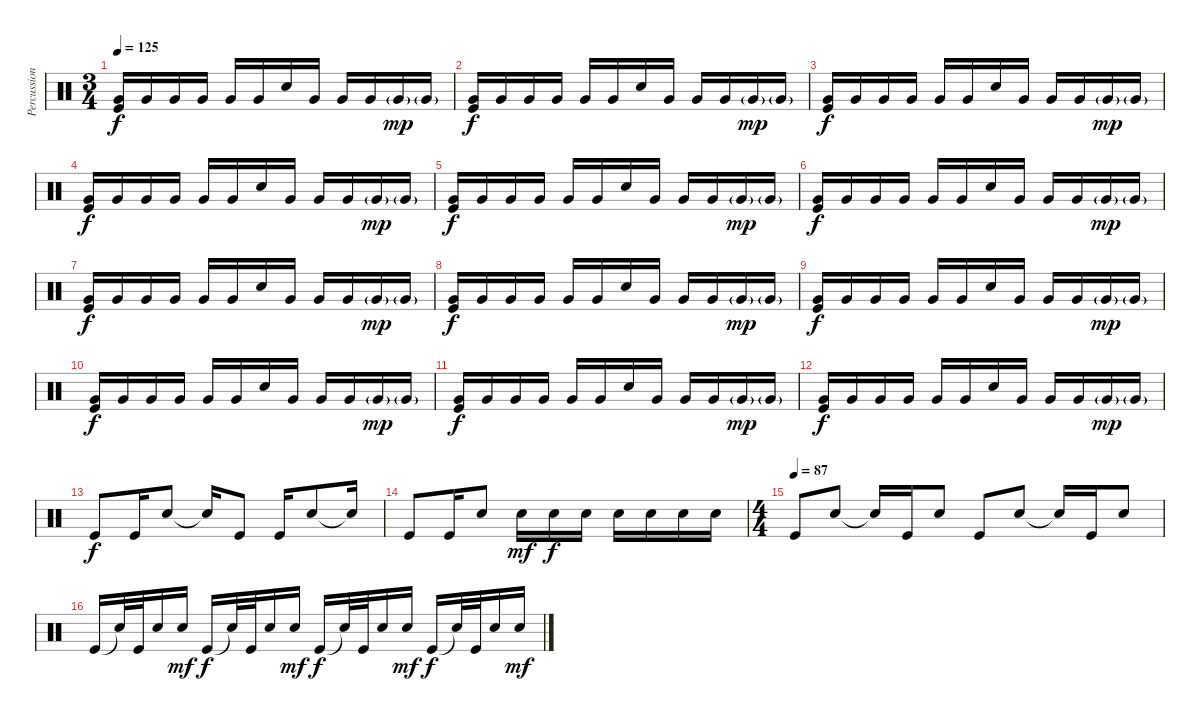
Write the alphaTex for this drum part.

\track ("Percussion" "Percussion") {instrument percussion}
\staff {score}
\articulation defaults
\ts (3 4)
\tempo 125
\clef neutral
\ks c
("Very Low Tom (hit)" "Kick (hit)").16{dy f} "Very Low Tom (hit)".16 "Very Low Tom (hit)".16 "Very Low Tom (hit)".16 "Very Low Tom (hit)".16 "Very Low Tom (hit)".16 "Electric Snare (hit)".16 "Very Low Tom (hit)".16 "Very Low Tom (hit)".16 "Very Low Tom (hit)".16 "Very Low Tom (hit)"{g}.16{dy mp} "Very Low Tom (hit)"{g}.16 |
("Very Low Tom (hit)" "Kick (hit)").16{dy f} "Very Low Tom (hit)".16 "Very Low Tom (hit)".16 "Very Low Tom (hit)".16 "Very Low Tom (hit)".16 "Very Low Tom (hit)".16 "Electric Snare (hit)".16 "Very Low Tom (hit)".16 "Very Low Tom (hit)".16 "Very Low Tom (hit)".16 "Very Low Tom (hit)"{g}.16{dy mp} "Very Low Tom (hit)"{g}.16 |
("Very Low Tom (hit)" "Kick (hit)").16{dy f} "Very Low Tom (hit)".16 "Very Low Tom (hit)".16 "Very Low Tom (hit)".16 "Very Low Tom (hit)".16 "Very Low Tom (hit)".16 "Electric Snare (hit)".16 "Very Low Tom (hit)".16 "Very Low Tom (hit)".16 "Very Low Tom (hit)".16 "Very Low Tom (hit)"{g}.16{dy mp} "Very Low Tom (hit)"{g}.16 |
("Very Low Tom (hit)" "Kick (hit)").16{dy f} "Very Low Tom (hit)".16 "Very Low Tom (hit)".16 "Very Low Tom (hit)".16 "Very Low Tom (hit)".16 "Very Low Tom (hit)".16 "Electric Snare (hit)".16 "Very Low Tom (hit)".16 "Very Low Tom (hit)".16 "Very Low Tom (hit)".16 "Very Low Tom (hit)"{g}.16{dy mp} "Very Low Tom (hit)"{g}.16 |
("Very Low Tom (hit)" "Kick (hit)").16{dy f} "Very Low Tom (hit)".16 "Very Low Tom (hit)".16 "Very Low Tom (hit)".16 "Very Low Tom (hit)".16 "Very Low Tom (hit)".16 "Electric Snare (hit)".16 "Very Low Tom (hit)".16 "Very Low Tom (hit)".16 "Very Low Tom (hit)".16 "Very Low Tom (hit)"{g}.16{dy mp} "Very Low Tom (hit)"{g}.16 |
("Very Low Tom (hit)" "Kick (hit)").16{dy f} "Very Low Tom (hit)".16 "Very Low Tom (hit)".16 "Very Low Tom (hit)".16 "Very Low Tom (hit)".16 "Very Low Tom (hit)".16 "Electric Snare (hit)".16 "Very Low Tom (hit)".16 "Very Low Tom (hit)".16 "Very Low Tom (hit)".16 "Very Low Tom (hit)"{g}.16{dy mp} "Very Low Tom (hit)"{g}.16 |
("Very Low Tom (hit)" "Kick (hit)").16{dy f} "Very Low Tom (hit)".16 "Very Low Tom (hit)".16 "Very Low Tom (hit)".16 "Very Low Tom (hit)".16 "Very Low Tom (hit)".16 "Electric Snare (hit)".16 "Very Low Tom (hit)".16 "Very Low Tom (hit)".16 "Very Low Tom (hit)".16 "Very Low Tom (hit)"{g}.16{dy mp} "Very Low Tom (hit)"{g}.16 |
("Very Low Tom (hit)" "Kick (hit)").16{dy f} "Very Low Tom (hit)".16 "Very Low Tom (hit)".16 "Very Low Tom (hit)".16 "Very Low Tom (hit)".16 "Very Low Tom (hit)".16 "Electric Snare (hit)".16 "Very Low Tom (hit)".16 "Very Low Tom (hit)".16 "Very Low Tom (hit)".16 "Very Low Tom (hit)"{g}.16{dy mp} "Very Low Tom (hit)"{g}.16 |
("Very Low Tom (hit)" "Kick (hit)").16{dy f} "Very Low Tom (hit)".16 "Very Low Tom (hit)".16 "Very Low Tom (hit)".16 "Very Low Tom (hit)".16 "Very Low Tom (hit)".16 "Electric Snare (hit)".16 "Very Low Tom (hit)".16 "Very Low Tom (hit)".16 "Very Low Tom (hit)".16 "Very Low Tom (hit)"{g}.16{dy mp} "Very Low Tom (hit)"{g}.16 |
("Very Low Tom (hit)" "Kick (hit)").16{dy f} "Very Low Tom (hit)".16 "Very Low Tom (hit)".16 "Very Low Tom (hit)".16 "Very Low Tom (hit)".16 "Very Low Tom (hit)".16 "Electric Snare (hit)".16 "Very Low Tom (hit)".16 "Very Low Tom (hit)".16 "Very Low Tom (hit)".16 "Very Low Tom (hit)"{g}.16{dy mp} "Very Low Tom (hit)"{g}.16 |
("Very Low Tom (hit)" "Kick (hit)").16{dy f} "Very Low Tom (hit)".16 "Very Low Tom (hit)".16 "Very Low Tom (hit)".16 "Very Low Tom (hit)".16 "Very Low Tom (hit)".16 "Electric Snare (hit)".16 "Very Low Tom (hit)".16 "Very Low Tom (hit)".16 "Very Low Tom (hit)".16 "Very Low Tom (hit)"{g}.16{dy mp} "Very Low Tom (hit)"{g}.16 |
("Very Low Tom (hit)" "Kick (hit)").16{dy f} "Very Low Tom (hit)".16 "Very Low Tom (hit)".16 "Very Low Tom (hit)".16 "Very Low Tom (hit)".16 "Very Low Tom (hit)".16 "Electric Snare (hit)".16 "Very Low Tom (hit)".16 "Very Low Tom (hit)".16 "Very Low Tom (hit)".16 "Very Low Tom (hit)"{g}.16{dy mp} "Very Low Tom (hit)"{g}.16 |
"Kick (hit)".8{dy f} "Kick (hit)".16 "Electric Snare (hit)".8 "Snare (hit)"{t}.16 "Kick (hit)".8 "Kick (hit)".16 "Electric Snare (hit)".8 "Snare (hit)"{t}.16 |
"Kick (hit)".8 "Kick (hit)".16 "Electric Snare (hit)".8 "Electric Snare (hit)".16{dy mf} "Electric Snare (hit)".16{dy f} "Electric Snare (hit)".16 "Electric Snare (hit)".16 "Electric Snare (hit)".16 "Electric Snare (hit)".16 "Electric Snare (hit)".16 |
\ts (4 4)
\tempo (87)
"Kick (hit)".8 "Electric Snare (hit)".8 "Snare (hit)"{t}.16 "Kick (hit)".16 "Electric Snare (hit)".8 "Kick (hit)".8 "Electric Snare (hit)".8 "Snare (hit)"{t}.16 "Kick (hit)".16 "Electric Snare (hit)".8 |
"Kick (hit)".16 "Snare (hit)"{t}.32 "Kick (hit)".32 "Electric Snare (hit)".16 "Electric Snare (hit)".16{dy mf} "Kick (hit)".16{dy f} "Snare (hit)"{t}.32 "Kick (hit)".32 "Electric Snare (hit)".16 "Electric Snare (hit)".16{dy mf} "Kick (hit)".16{dy f} "Snare (hit)"{t}.32 "Kick (hit)".32 "Electric Snare (hit)".16 "Electric Snare (hit)".16{dy mf} "Kick (hit)".16{dy f} "Snare (hit)"{t}.32 "Kick (hit)".32 "Electric Snare (hit)".16 "Electric Snare (hit)".16{dy mf}
